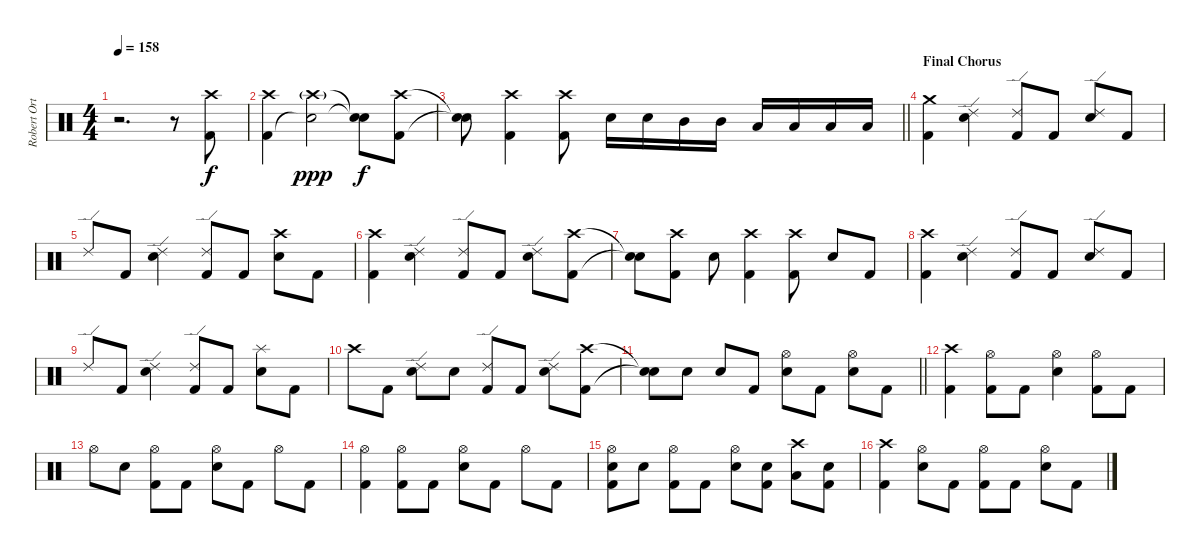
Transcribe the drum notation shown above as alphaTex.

\track ("Robert Ortiz [Drums]" "Robert Ort") {instrument percussion}
\staff {score}
\articulation defaults
\ts (4 4)
\tempo 158
\clef neutral
\ks c
r.2{d dy ppp} r.8 ("Crash high (hit)" "Kick (hit) 2").8{dy f} |
("Crash high (hit)" "Kick (hit) 2").4 ("Crash high (hit)"{g} "Snare (hit)"{t}).2{dy ppp} ("Snare (hit)"{t} "Snare (hit)"{t}).8{dy f} ("Crash high (hit)" "Kick (hit) 2").8 |
\barLineRight lightlight
("Snare (hit)"{t} "Snare (hit)"{t}).8 ("Crash high (hit)" "Kick (hit) 2").4 ("Crash high (hit)" "Kick (hit) 2").8 "Electric Snare (hit)".16 "Electric Snare (hit)".16 "Mid Tom (hit)".16 "Mid Tom (hit)".16 "Low Tom (hit)".16 "Low Tom (hit)".16 "Low Floor Tom (hit)".16 "Low Floor Tom (hit)".16 |
\section ("" "Final Chorus")
("Crash medium (hit)" "Kick (hit) 2").4 ("Ride (edge) 2" "Electric Snare (hit)").4 ("Ride (edge) 2" "Kick (hit) 2").8 "Kick (hit) 2".8 ("Ride (edge) 2" "Electric Snare (hit)").8 "Kick (hit) 2".8 |
"Ride (edge) 2".8 "Kick (hit) 2".8 ("Ride (edge) 2" "Electric Snare (hit)").4 ("Ride (edge) 2" "Kick (hit) 2").8 "Kick (hit) 2".8 ("Crash high (hit)" "Electric Snare (hit)").8 "Kick (hit) 2".8 |
("Crash high (hit)" "Kick (hit) 2").4 ("Ride (edge) 2" "Electric Snare (hit)").4 ("Ride (edge) 2" "Kick (hit) 2").8 "Kick (hit) 2".8 ("Ride (edge) 2" "Electric Snare (hit)").8 ("Crash high (hit)" "Kick (hit) 2").8 |
("Snare (hit)"{t} "Snare (hit)"{t}).8 ("Crash high (hit)" "Kick (hit) 2").8 "Electric Snare (hit)".8 ("Crash high (hit)" "Kick (hit) 2").4 ("Crash high (hit)" "Kick (hit) 2").8 "Electric Snare (hit)".8 "Kick (hit) 2".8 |
("Crash high (hit)" "Kick (hit) 2").4 ("Ride (edge) 2" "Electric Snare (hit)").4 ("Ride (edge) 2" "Kick (hit) 2").8 "Kick (hit) 2".8 ("Ride (edge) 2" "Electric Snare (hit)").8 "Kick (hit) 2".8 |
"Ride (edge) 2".8 "Kick (hit) 2".8 ("Ride (edge) 2" "Electric Snare (hit)").4 ("Ride (edge) 2" "Kick (hit) 2").8 "Kick (hit) 2".8 ("Splash (hit)" "Electric Snare (hit)").8 "Kick (hit) 2".8 |
"Crash high (hit)".8 "Kick (hit) 2".8 ("Ride (edge) 2" "Electric Snare (hit)").8 "Electric Snare (hit)".8 ("Ride (edge) 2" "Kick (hit) 2").8 "Kick (hit) 2".8 ("Ride (edge) 2" "Electric Snare (hit)").8 ("Crash high (hit)" "Kick (hit) 2").8 |
\barLineRight lightlight
("Snare (hit)"{t} "Snare (hit)"{t}).8 "Electric Snare (hit)".8 "Electric Snare (hit)".8 "Kick (hit) 2".8 ("Hi-Hat (open)" "Electric Snare (hit)").8 "Kick (hit) 2".8 ("Hi-Hat (open)" "Electric Snare (hit)").8 "Kick (hit) 2".8 |
("Crash high (hit)" "Kick (hit) 2").4 ("Hi-Hat (open)" "Kick (hit) 2").8 "Kick (hit) 2".8 ("Hi-Hat (open)" "Electric Snare (hit)").4 ("Hi-Hat (open)" "Kick (hit) 2").8 "Kick (hit) 2".8 |
"Hi-Hat (open)".8 "Electric Snare (hit)".8 ("Hi-Hat (open)" "Kick (hit) 2").8 "Kick (hit) 2".8 ("Hi-Hat (open)" "Electric Snare (hit)").8 "Kick (hit) 2".8 "Hi-Hat (open)".8 "Kick (hit) 2".8 |
("Hi-Hat (open)" "Kick (hit) 2").4 ("Hi-Hat (open)" "Kick (hit) 2").8 "Kick (hit) 2".8 ("Hi-Hat (open)" "Electric Snare (hit)").8 "Kick (hit) 2".8 "Hi-Hat (open)".8 "Kick (hit) 2".8 |
("Hi-Hat (open)" "Electric Snare (hit)" "Kick (hit) 2").8 "Electric Snare (hit)".8 ("Hi-Hat (open)" "Kick (hit) 2").8 "Kick (hit) 2".8 ("Hi-Hat (open)" "Electric Snare (hit)").8 ("Electric Snare (hit)" "Kick (hit) 2").8 ("Crash high (hit)" "Low Tom (hit)").8 ("Electric Snare (hit)" "Kick (hit) 2").8 |
("Crash high (hit)" "Kick (hit) 2").4 ("Hi-Hat (open)" "Electric Snare (hit)").8 "Kick (hit) 2".8 ("Hi-Hat (open)" "Kick (hit) 2").8 "Kick (hit) 2".8 ("Hi-Hat (open)" "Electric Snare (hit)").8 "Kick (hit) 2".8
